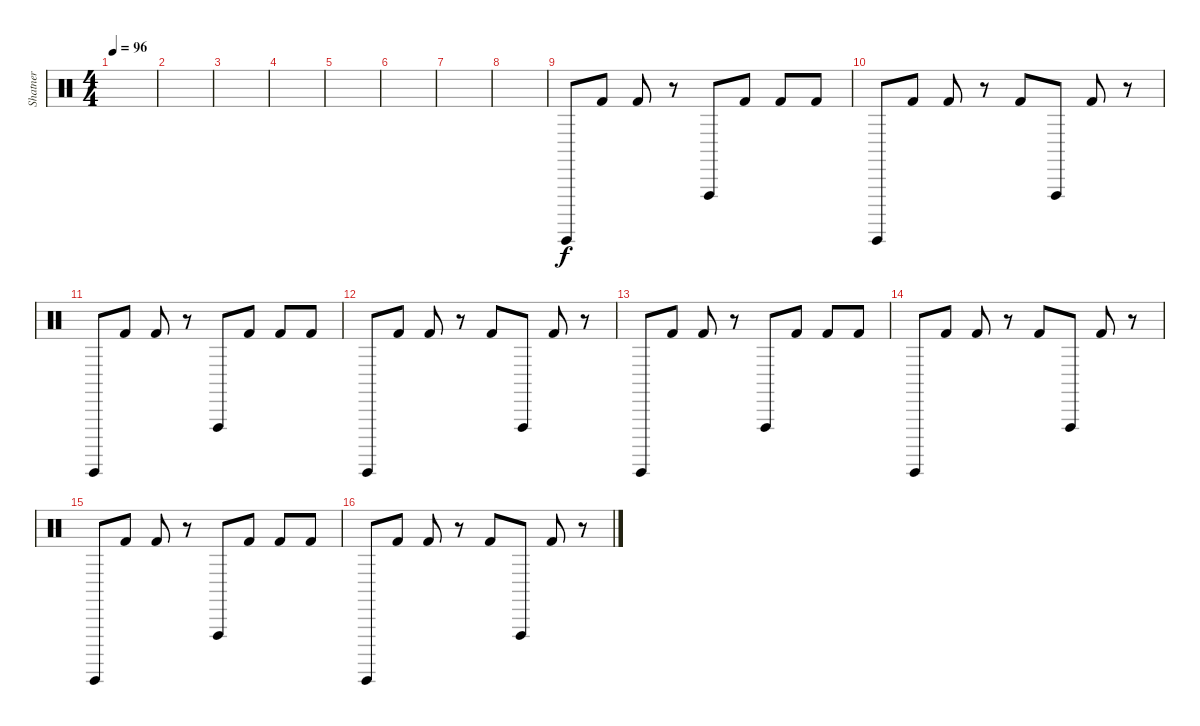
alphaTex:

\track ("Shatner" "Shatner") {instrument percussion}
\staff {score}
\articulation defaults
\ts (4 4)
\tempo 96
\clef neutral
\ks c
|
|
|
|
|
|
|
|
"Guiro (hit)".8 "Kick (hit) 2".8 "Kick (hit) 2".8 r.8 "Vibraslap (hit)".8 "Kick (hit) 2".8 "Kick (hit) 2".8 "Kick (hit) 2".8 |
"Guiro (hit)".8 "Kick (hit) 2".8 "Kick (hit) 2".8 r.8 "Kick (hit) 2".8 "Vibraslap (hit)".8 "Kick (hit) 2".8 r.8 |
"Guiro (hit)".8 "Kick (hit) 2".8 "Kick (hit) 2".8 r.8 "Vibraslap (hit)".8 "Kick (hit) 2".8 "Kick (hit) 2".8 "Kick (hit) 2".8 |
"Guiro (hit)".8 "Kick (hit) 2".8 "Kick (hit) 2".8 r.8 "Kick (hit) 2".8 "Vibraslap (hit)".8 "Kick (hit) 2".8 r.8 |
"Guiro (hit)".8 "Kick (hit) 2".8 "Kick (hit) 2".8 r.8 "Vibraslap (hit)".8 "Kick (hit) 2".8 "Kick (hit) 2".8 "Kick (hit) 2".8 |
"Guiro (hit)".8 "Kick (hit) 2".8 "Kick (hit) 2".8 r.8 "Kick (hit) 2".8 "Vibraslap (hit)".8 "Kick (hit) 2".8 r.8 |
"Guiro (hit)".8 "Kick (hit) 2".8 "Kick (hit) 2".8 r.8 "Vibraslap (hit)".8 "Kick (hit) 2".8 "Kick (hit) 2".8 "Kick (hit) 2".8 |
"Guiro (hit)".8 "Kick (hit) 2".8 "Kick (hit) 2".8 r.8 "Kick (hit) 2".8 "Vibraslap (hit)".8 "Kick (hit) 2".8 r.8
